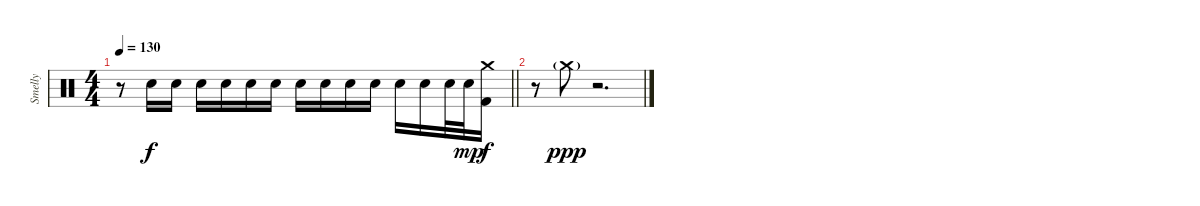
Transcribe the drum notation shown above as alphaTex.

\track ("Smelly" "Smelly") {instrument percussion}
\staff {score}
\articulation defaults
\ts (4 4)
\tempo 130
\clef neutral
\barLineRight lightlight
\ks c
r.8{dy f} "Electric Snare (hit)".16 "Electric Snare (hit)".16 "Electric Snare (hit)".16 "Electric Snare (hit)".16 "Electric Snare (hit)".16 "Electric Snare (hit)".16 "Electric Snare (hit)".16 "Electric Snare (hit)".16 "Electric Snare (hit)".16 "Electric Snare (hit)".16 "Electric Snare (hit)".16 "Electric Snare (hit)".16 "Electric Snare (hit)".32 "Electric Snare (hit)".32{dy mp} ("Crash medium (hit)" "Kick (hit) 2").16{dy f} |
r.8 "Crash medium (hit)"{g}.8{dy ppp} r.2{d}
